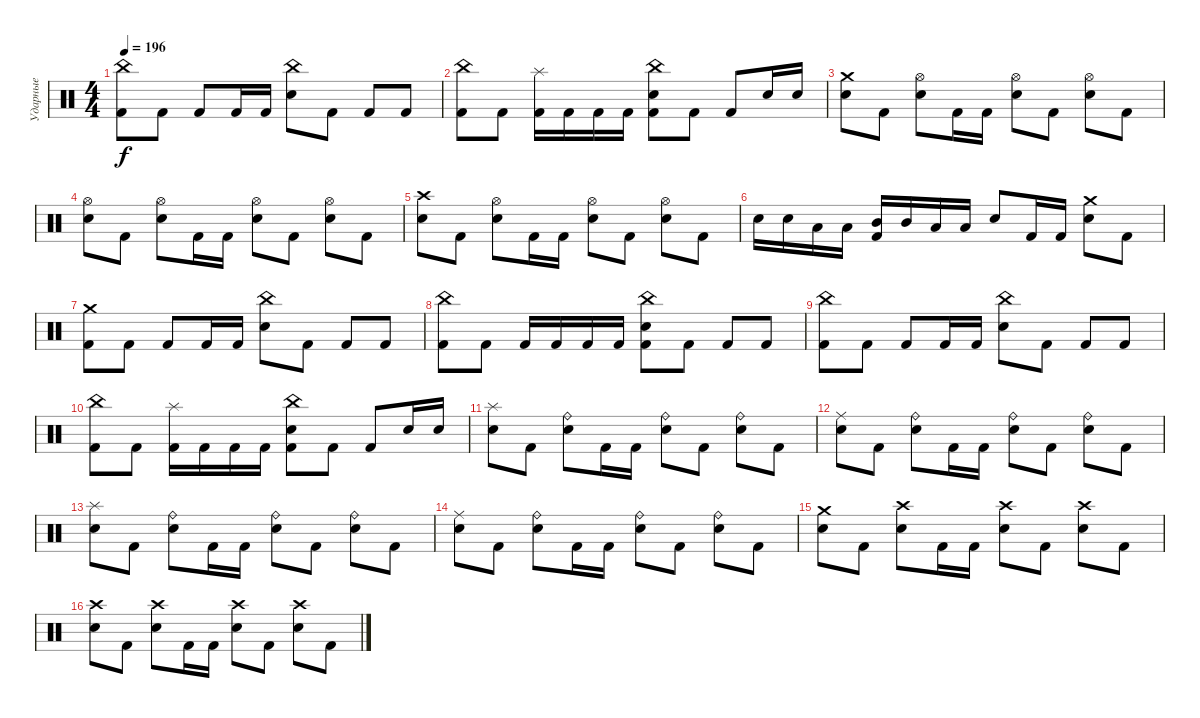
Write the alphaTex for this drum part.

\track ("Ударные" "Ударные") {instrument percussion}
\staff {score}
\articulation defaults
\ts (4 4)
\tempo 196
\clef neutral
\ks c
("China (hit)" "Kick (hit) 2").8{dy f} "Kick (hit) 2".8 "Kick (hit) 2".8 "Kick (hit) 2".16 "Kick (hit) 2".16 ("China (hit)" "Snare (hit) 2").8 "Kick (hit) 2".8 "Kick (hit) 2".8 "Kick (hit) 2".8 |
("China (hit)" "Kick (hit) 2").8 "Kick (hit) 2".8 ("Splash (hit)" "Kick (hit) 2").16 "Kick (hit) 2".16 "Kick (hit) 2".16 "Kick (hit) 2".16 ("China (hit)" "Snare (hit) 2" "Kick (hit) 2").8 "Kick (hit) 2".8 "Kick (hit) 2".8 "Snare (hit) 2".16 "Snare (hit) 2".16 |
("Crash medium (hit)" "Snare (hit) 2").8 "Kick (hit) 2".8 ("Hi-Hat (open)" "Snare (hit) 2").8 "Kick (hit) 2".16 "Kick (hit) 2".16 ("Hi-Hat (open)" "Snare (hit) 2").8 "Kick (hit) 2".8 ("Hi-Hat (open)" "Snare (hit) 2").8 "Kick (hit) 2".8 |
("Hi-Hat (open)" "Snare (hit) 2").8 "Kick (hit) 2".8 ("Hi-Hat (open)" "Snare (hit) 2").8 "Kick (hit) 2".16 "Kick (hit) 2".16 ("Hi-Hat (open)" "Snare (hit) 2").8 "Kick (hit) 2".8 ("Hi-Hat (open)" "Snare (hit) 2").8 "Kick (hit) 2".8 |
("Crash high (hit)" "Snare (hit) 2").8 "Kick (hit) 2".8 ("Hi-Hat (open)" "Snare (hit) 2").8 "Kick (hit) 2".16 "Kick (hit) 2".16 ("Hi-Hat (open)" "Snare (hit) 2").8 "Kick (hit) 2".8 ("Hi-Hat (open)" "Snare (hit) 2").8 "Kick (hit) 2".8 |
"Snare (hit) 2".16 "Snare (hit) 2".16 "Low Tom (hit)".16 "Low Tom (hit)".16 ("Mid Tom (hit)" "Kick (hit) 2").16 "Mid Tom (hit)".16 "Low Tom (hit)".16 "Low Tom (hit)".16 "Snare (hit) 2".8 "Kick (hit) 2".16 "Kick (hit) 2".16 ("Crash medium (hit)" "Snare (hit) 2").8 "Kick (hit) 2".8 |
("Crash medium (hit)" "Kick (hit) 2").8 "Kick (hit) 2".8 "Kick (hit) 2".8 "Kick (hit) 2".16 "Kick (hit) 2".16 ("China (hit)" "Snare (hit) 2").8 "Kick (hit) 2".8 "Kick (hit) 2".8 "Kick (hit) 2".8 |
("China (hit)" "Kick (hit) 2").8 "Kick (hit) 2".8 "Kick (hit) 2".16 "Kick (hit) 2".16 "Kick (hit) 2".16 "Kick (hit) 2".16 ("China (hit)" "Snare (hit) 2" "Kick (hit) 2").8 "Kick (hit) 2".8 "Kick (hit) 2".8 "Kick (hit) 2".8 |
("China (hit)" "Kick (hit) 2").8 "Kick (hit) 2".8 "Kick (hit) 2".8 "Kick (hit) 2".16 "Kick (hit) 2".16 ("China (hit)" "Snare (hit) 2").8 "Kick (hit) 2".8 "Kick (hit) 2".8 "Kick (hit) 2".8 |
("China (hit)" "Kick (hit) 2").8 "Kick (hit) 2".8 ("Splash (hit)" "Kick (hit) 2").16 "Kick (hit) 2".16 "Kick (hit) 2".16 "Kick (hit) 2".16 ("China (hit)" "Snare (hit) 2" "Kick (hit) 2").8 "Kick (hit) 2".8 "Kick (hit) 2".8 "Snare (hit) 2".16 "Snare (hit) 2".16 |
("Splash (hit)" "Snare (hit) 2").8 "Kick (hit) 2".8 ("Ride (bell)" "Snare (hit) 2").8 "Kick (hit) 2".16 "Kick (hit) 2".16 ("Ride (bell)" "Snare (hit) 2").8 "Kick (hit) 2".8 ("Ride (bell)" "Snare (hit) 2").8 "Kick (hit) 2".8 |
("Ride (middle)" "Snare (hit) 2").8 "Kick (hit) 2".8 ("Ride (bell)" "Snare (hit) 2").8 "Kick (hit) 2".16 "Kick (hit) 2".16 ("Ride (bell)" "Snare (hit) 2").8 "Kick (hit) 2".8 ("Ride (bell)" "Snare (hit) 2").8 "Kick (hit) 2".8 |
("Splash (hit)" "Snare (hit) 2").8 "Kick (hit) 2".8 ("Ride (bell)" "Snare (hit) 2").8 "Kick (hit) 2".16 "Kick (hit) 2".16 ("Ride (bell)" "Snare (hit) 2").8 "Kick (hit) 2".8 ("Ride (bell)" "Snare (hit) 2").8 "Kick (hit) 2".8 |
("Ride (middle)" "Snare (hit) 2").8 "Kick (hit) 2".8 ("Ride (bell)" "Snare (hit) 2").8 "Kick (hit) 2".16 "Kick (hit) 2".16 ("Ride (bell)" "Snare (hit) 2").8 "Kick (hit) 2".8 ("Ride (bell)" "Snare (hit) 2").8 "Kick (hit) 2".8 |
("Crash medium (hit)" "Snare (hit) 2").8 "Kick (hit) 2".8 ("Crash high (hit)" "Snare (hit) 2").8 "Kick (hit) 2".16 "Kick (hit) 2".16 ("Crash high (hit)" "Snare (hit) 2").8 "Kick (hit) 2".8 ("Crash high (hit)" "Snare (hit) 2").8 "Kick (hit) 2".8 |
("Crash high (hit)" "Snare (hit) 2").8 "Kick (hit) 2".8 ("Crash high (hit)" "Snare (hit) 2").8 "Kick (hit) 2".16 "Kick (hit) 2".16 ("Crash high (hit)" "Snare (hit) 2").8 "Kick (hit) 2".8 ("Crash high (hit)" "Snare (hit) 2").8 "Kick (hit) 2".8
